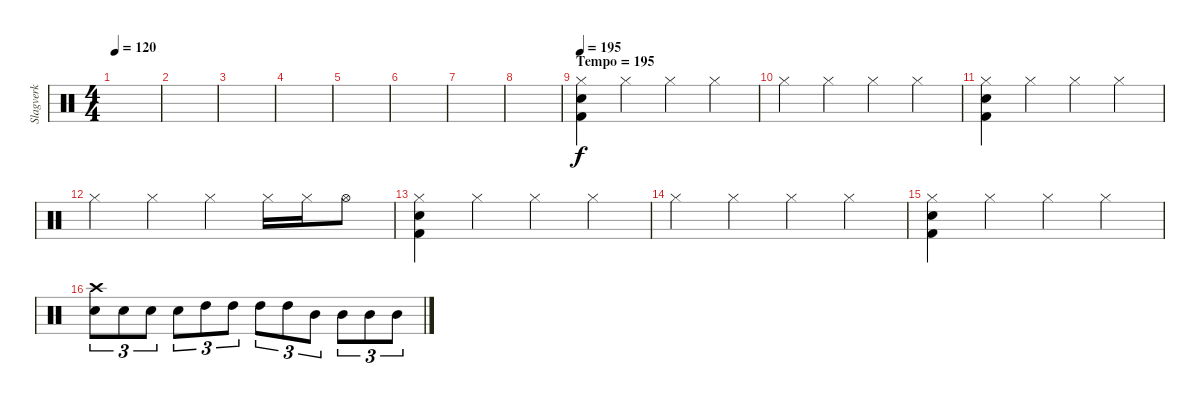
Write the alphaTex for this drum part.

\track ("Slagverk" "Slagverk") {instrument percussion}
\staff {score}
\articulation defaults
\ts (4 4)
\tempo 120
\clef neutral
\ks c
|
|
|
|
|
|
|
|
\section ("" "Tempo = 195")
\tempo 195
("Hi-Hat (closed)" "Electric Snare (hit)" "Kick (hit) 2").4 "Hi-Hat (closed)".4 "Hi-Hat (closed)".4 "Hi-Hat (closed)".4 |
"Hi-Hat (closed)".4 "Hi-Hat (closed)".4 "Hi-Hat (closed)".4 "Hi-Hat (closed)".4 |
("Hi-Hat (closed)" "Electric Snare (hit)" "Kick (hit) 2").4 "Hi-Hat (closed)".4 "Hi-Hat (closed)".4 "Hi-Hat (closed)".4 |
"Hi-Hat (closed)".4 "Hi-Hat (closed)".4 "Hi-Hat (closed)".4 "Hi-Hat (closed)".16 "Hi-Hat (closed)".16 "Hi-Hat (open)".8 |
("Hi-Hat (closed)" "Electric Snare (hit)" "Kick (hit) 2").4 "Hi-Hat (closed)".4 "Hi-Hat (closed)".4 "Hi-Hat (closed)".4 |
"Hi-Hat (closed)".4 "Hi-Hat (closed)".4 "Hi-Hat (closed)".4 "Hi-Hat (closed)".4 |
("Hi-Hat (closed)" "Electric Snare (hit)" "Kick (hit) 2").4 "Hi-Hat (closed)".4 "Hi-Hat (closed)".4 "Hi-Hat (closed)".4 |
("Crash high (hit)" "Electric Snare (hit)").8{tu (3 2)} "Electric Snare (hit)".8{tu (3 2)} "Electric Snare (hit)".8{tu (3 2)} "Electric Snare (hit)".8{tu (3 2)} "High Tom (hit)".8{tu (3 2)} "High Tom (hit)".8{tu (3 2)} "High Tom (hit)".8{tu (3 2)} "High Tom (hit)".8{tu (3 2)} "Mid Tom (hit)".8{tu (3 2)} "Mid Tom (hit)".8{tu (3 2)} "Mid Tom (hit)".8{tu (3 2)} "Mid Tom (hit)".8{tu (3 2)}
